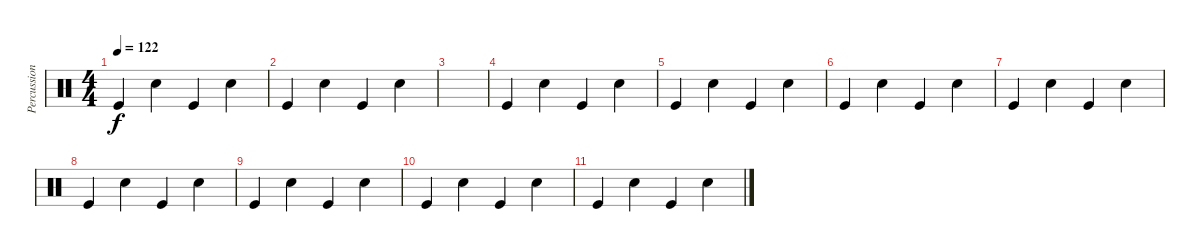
\track ("Percussion" "Percussion") {instrument percussion}
\staff {score}
\articulation defaults
\ts (4 4)
\tempo 122
\clef neutral
\ks c "Kick (hit)".4{dy f} "Snare (hit) 2".4 "Kick (hit)".4 "Snare (hit) 2".4
|
"Kick (hit)".4 "Snare (hit) 2".4 "Kick (hit)".4 "Snare (hit) 2".4 |
|
"Kick (hit)".4 "Snare (hit) 2".4 "Kick (hit)".4 "Snare (hit) 2".4 |
"Kick (hit)".4 "Snare (hit) 2".4 "Kick (hit)".4 "Snare (hit) 2".4 |
"Kick (hit)".4 "Snare (hit) 2".4 "Kick (hit)".4 "Snare (hit) 2".4 |
"Kick (hit)".4 "Snare (hit) 2".4 "Kick (hit)".4 "Snare (hit) 2".4 |
"Kick (hit)".4 "Snare (hit) 2".4 "Kick (hit)".4 "Snare (hit) 2".4 |
"Kick (hit)".4 "Snare (hit) 2".4 "Kick (hit)".4 "Snare (hit) 2".4 |
"Kick (hit)".4 "Snare (hit) 2".4 "Kick (hit)".4 "Snare (hit) 2".4 |
"Kick (hit)".4 "Snare (hit) 2".4 "Kick (hit)".4 "Snare (hit) 2".4
